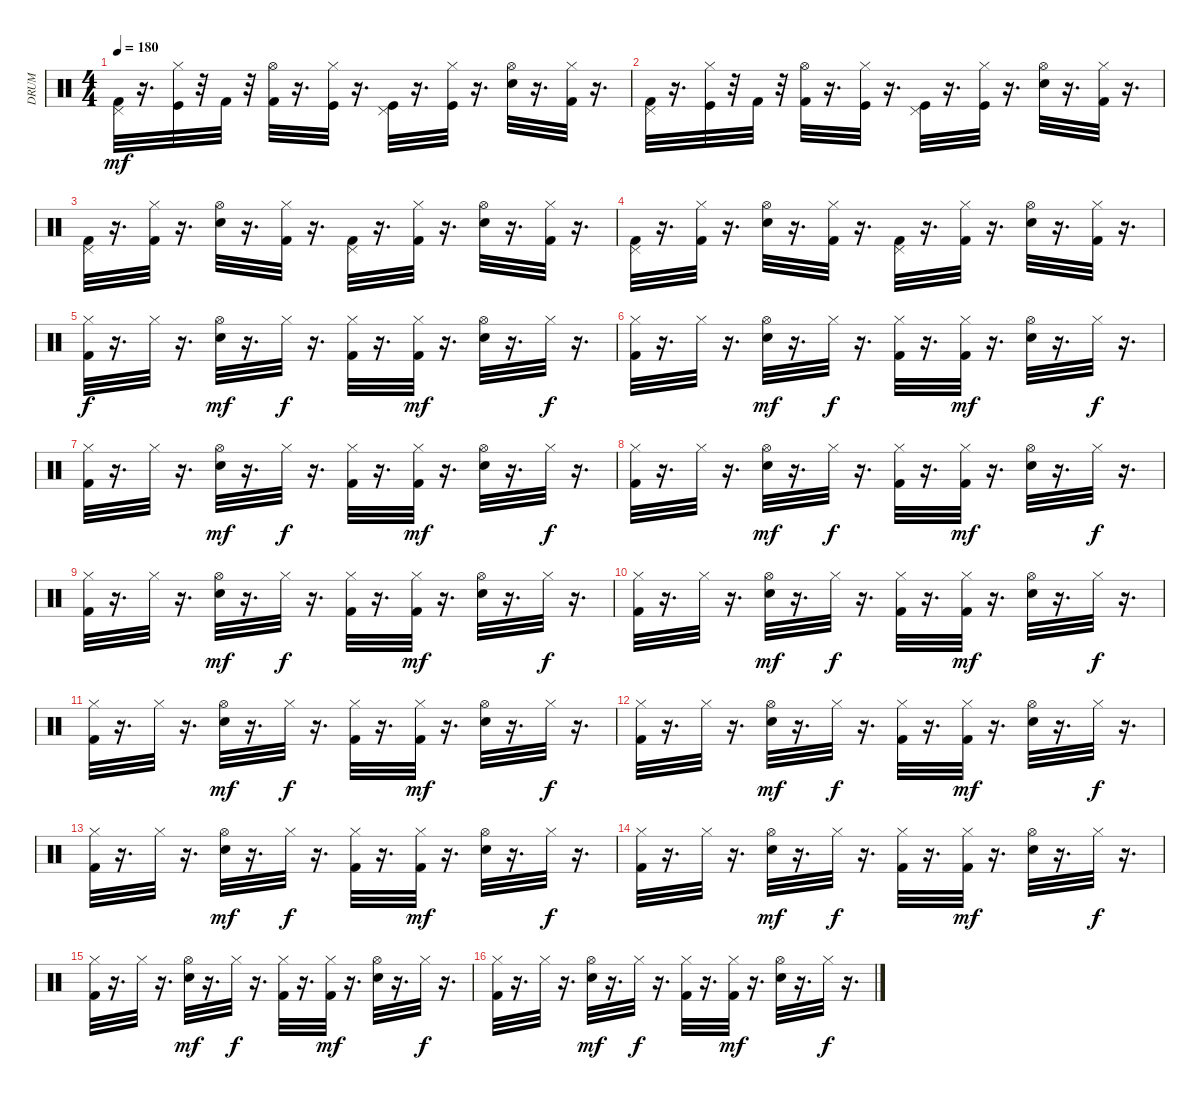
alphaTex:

\track ("DRUM" "DRUM") {instrument percussion}
\staff {score}
\articulation defaults
\ts (4 4)
\tempo 180
\clef neutral
\ks c
("Kick (hit) 2" "Pedal Hi-Hat (hit)").32{dy mf} r.16{d} ("Hi-Hat (closed)" "Kick (hit)").32 r.32 "Kick (hit) 2".32 r.32 ("Kick (hit) 2" "Hi-Hat (open)").32 r.16{d} ("Kick (hit)" "Hi-Hat (closed)").32 r.16{d} ("Pedal Hi-Hat (hit)" "Kick (hit)").32 r.16{d} ("Hi-Hat (closed)" "Kick (hit)").32 r.16{d} ("Hi-Hat (open)" "Snare (hit) 2").32 r.16{d} ("Kick (hit) 2" "Hi-Hat (closed)").32 r.16{d} |
("Kick (hit) 2" "Pedal Hi-Hat (hit)").32 r.16{d} ("Hi-Hat (closed)" "Kick (hit)").32 r.32 "Kick (hit) 2".32 r.32 ("Kick (hit) 2" "Hi-Hat (open)").32 r.16{d} ("Hi-Hat (closed)" "Kick (hit)").32 r.16{d} ("Kick (hit)" "Pedal Hi-Hat (hit)").32 r.16{d} ("Kick (hit)" "Hi-Hat (closed)").32 r.16{d} ("Hi-Hat (open)" "Snare (hit) 2").32 r.16{d} ("Kick (hit) 2" "Hi-Hat (closed)").32 r.16{d} |
("Kick (hit) 2" "Pedal Hi-Hat (hit)").32 r.16{d} ("Hi-Hat (closed)" "Kick (hit) 2").32 r.16{d} ("Snare (hit) 2" "Hi-Hat (open)").32 r.16{d} ("Kick (hit) 2" "Hi-Hat (closed)").32 r.16{d} ("Kick (hit) 2" "Pedal Hi-Hat (hit)").32 r.16{d} ("Hi-Hat (closed)" "Kick (hit) 2").32 r.16{d} ("Snare (hit) 2" "Hi-Hat (open)").32 r.16{d} ("Hi-Hat (closed)" "Kick (hit) 2").32 r.16{d} |
("Pedal Hi-Hat (hit)" "Kick (hit) 2").32 r.16{d} ("Hi-Hat (closed)" "Kick (hit) 2").32 r.16{d} ("Hi-Hat (open)" "Snare (hit) 2").32 r.16{d} ("Hi-Hat (closed)" "Kick (hit) 2").32 r.16{d} ("Kick (hit) 2" "Pedal Hi-Hat (hit)").32 r.16{d} ("Hi-Hat (closed)" "Kick (hit) 2").32 r.16{d} ("Hi-Hat (open)" "Snare (hit) 2").32 r.16{d} ("Kick (hit) 2" "Hi-Hat (closed)").32 r.16{d} |
("Kick (hit) 2" "Hi-Hat (closed)").32{dy f} r.16{d} "Hi-Hat (closed)".32 r.16{d} ("Snare (hit) 2" "Hi-Hat (open)").32{dy mf} r.16{d} "Hi-Hat (closed)".32{dy f} r.16{d} ("Kick (hit) 2" "Hi-Hat (closed)").32 r.16{d} ("Kick (hit) 2" "Hi-Hat (closed)").32{dy mf} r.16{d} ("Snare (hit) 2" "Hi-Hat (open)").32 r.16{d} "Hi-Hat (closed)".32{dy f} r.16{d} |
("Kick (hit) 2" "Hi-Hat (closed)").32 r.16{d} "Hi-Hat (closed)".32 r.16{d} ("Snare (hit) 2" "Hi-Hat (open)").32{dy mf} r.16{d} "Hi-Hat (closed)".32{dy f} r.16{d} ("Kick (hit) 2" "Hi-Hat (closed)").32 r.16{d} ("Kick (hit) 2" "Hi-Hat (closed)").32{dy mf} r.16{d} ("Snare (hit) 2" "Hi-Hat (open)").32 r.16{d} "Hi-Hat (closed)".32{dy f} r.16{d} |
("Kick (hit) 2" "Hi-Hat (closed)").32 r.16{d} "Hi-Hat (closed)".32 r.16{d} ("Snare (hit) 2" "Hi-Hat (open)").32{dy mf} r.16{d} "Hi-Hat (closed)".32{dy f} r.16{d} ("Kick (hit) 2" "Hi-Hat (closed)").32 r.16{d} ("Kick (hit) 2" "Hi-Hat (closed)").32{dy mf} r.16{d} ("Snare (hit) 2" "Hi-Hat (open)").32 r.16{d} "Hi-Hat (closed)".32{dy f} r.16{d} |
("Kick (hit) 2" "Hi-Hat (closed)").32 r.16{d} "Hi-Hat (closed)".32 r.16{d} ("Snare (hit) 2" "Hi-Hat (open)").32{dy mf} r.16{d} "Hi-Hat (closed)".32{dy f} r.16{d} ("Kick (hit) 2" "Hi-Hat (closed)").32 r.16{d} ("Kick (hit) 2" "Hi-Hat (closed)").32{dy mf} r.16{d} ("Snare (hit) 2" "Hi-Hat (open)").32 r.16{d} "Hi-Hat (closed)".32{dy f} r.16{d} |
("Hi-Hat (closed)" "Kick (hit) 2").32 r.16{d} "Hi-Hat (closed)".32 r.16{d} ("Hi-Hat (open)" "Snare (hit) 2").32{dy mf} r.16{d} "Hi-Hat (closed)".32{dy f} r.16{d} ("Hi-Hat (closed)" "Kick (hit) 2").32 r.16{d} ("Hi-Hat (closed)" "Kick (hit) 2").32{dy mf} r.16{d} ("Hi-Hat (open)" "Snare (hit) 2").32 r.16{d} "Hi-Hat (closed)".32{dy f} r.16{d} |
("Kick (hit) 2" "Hi-Hat (closed)").32 r.16{d} "Hi-Hat (closed)".32 r.16{d} ("Hi-Hat (open)" "Snare (hit) 2").32{dy mf} r.16{d} "Hi-Hat (closed)".32{dy f} r.16{d} ("Kick (hit) 2" "Hi-Hat (closed)").32 r.16{d} ("Hi-Hat (closed)" "Kick (hit) 2").32{dy mf} r.16{d} ("Snare (hit) 2" "Hi-Hat (open)").32 r.16{d} "Hi-Hat (closed)".32{dy f} r.16{d} |
("Hi-Hat (closed)" "Kick (hit) 2").32 r.16{d} "Hi-Hat (closed)".32 r.16{d} ("Hi-Hat (open)" "Snare (hit) 2").32{dy mf} r.16{d} "Hi-Hat (closed)".32{dy f} r.16{d} ("Kick (hit) 2" "Hi-Hat (closed)").32 r.16{d} ("Kick (hit) 2" "Hi-Hat (closed)").32{dy mf} r.16{d} ("Snare (hit) 2" "Hi-Hat (open)").32 r.16{d} "Hi-Hat (closed)".32{dy f} r.16{d} |
("Hi-Hat (closed)" "Kick (hit) 2").32 r.16{d} "Hi-Hat (closed)".32 r.16{d} ("Hi-Hat (open)" "Snare (hit) 2").32{dy mf} r.16{d} "Hi-Hat (closed)".32{dy f} r.16{d} ("Kick (hit) 2" "Hi-Hat (closed)").32 r.16{d} ("Hi-Hat (closed)" "Kick (hit) 2").32{dy mf} r.16{d} ("Hi-Hat (open)" "Snare (hit) 2").32 r.16{d} "Hi-Hat (closed)".32{dy f} r.16{d} |
("Kick (hit) 2" "Hi-Hat (closed)").32 r.16{d} "Hi-Hat (closed)".32 r.16{d} ("Snare (hit) 2" "Hi-Hat (open)").32{dy mf} r.16{d} "Hi-Hat (closed)".32{dy f} r.16{d} ("Kick (hit) 2" "Hi-Hat (closed)").32 r.16{d} ("Kick (hit) 2" "Hi-Hat (closed)").32{dy mf} r.16{d} ("Snare (hit) 2" "Hi-Hat (open)").32 r.16{d} "Hi-Hat (closed)".32{dy f} r.16{d} |
("Hi-Hat (closed)" "Kick (hit) 2").32 r.16{d} "Hi-Hat (closed)".32 r.16{d} ("Hi-Hat (open)" "Snare (hit) 2").32{dy mf} r.16{d} "Hi-Hat (closed)".32{dy f} r.16{d} ("Kick (hit) 2" "Hi-Hat (closed)").32 r.16{d} ("Kick (hit) 2" "Hi-Hat (closed)").32{dy mf} r.16{d} ("Hi-Hat (open)" "Snare (hit) 2").32 r.16{d} "Hi-Hat (closed)".32{dy f} r.16{d} |
("Hi-Hat (closed)" "Kick (hit) 2").32 r.16{d} "Hi-Hat (closed)".32 r.16{d} ("Hi-Hat (open)" "Snare (hit) 2").32{dy mf} r.16{d} "Hi-Hat (closed)".32{dy f} r.16{d} ("Hi-Hat (closed)" "Kick (hit) 2").32 r.16{d} ("Hi-Hat (closed)" "Kick (hit) 2").32{dy mf} r.16{d} ("Hi-Hat (open)" "Snare (hit) 2").32 r.16{d} "Hi-Hat (closed)".32{dy f} r.16{d} |
("Hi-Hat (closed)" "Kick (hit) 2").32 r.16{d} "Hi-Hat (closed)".32 r.16{d} ("Hi-Hat (open)" "Snare (hit) 2").32{dy mf} r.16{d} "Hi-Hat (closed)".32{dy f} r.16{d} ("Kick (hit) 2" "Hi-Hat (closed)").32 r.16{d} ("Kick (hit) 2" "Hi-Hat (closed)").32{dy mf} r.16{d} ("Snare (hit) 2" "Hi-Hat (open)").32 r.16{d} "Hi-Hat (closed)".32{dy f} r.16{d}
